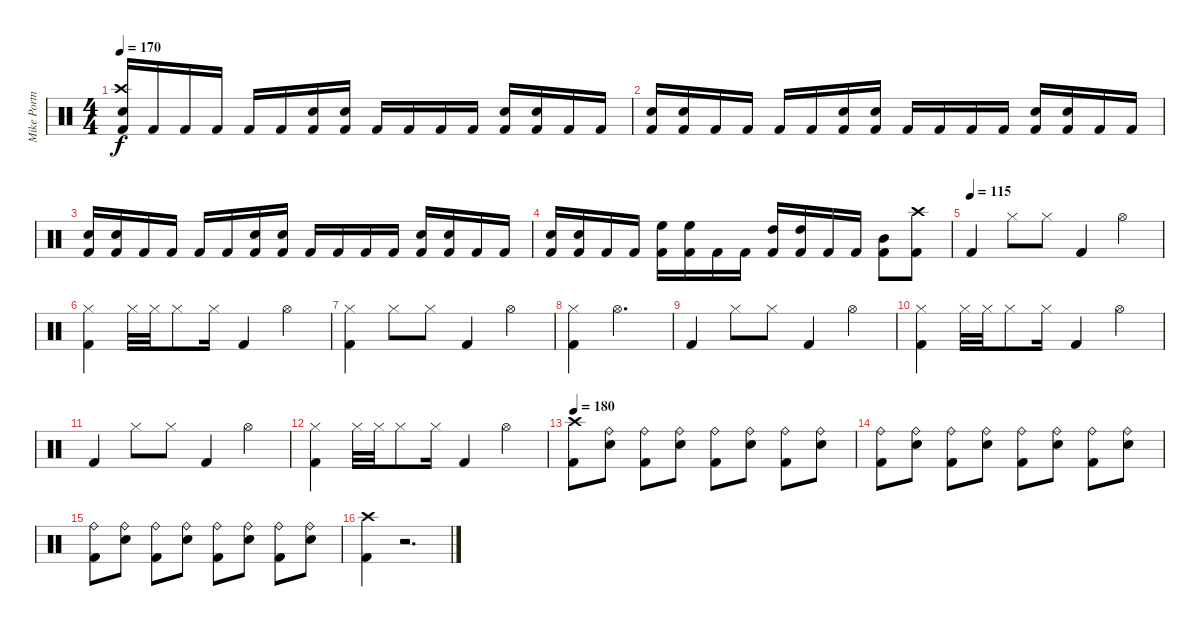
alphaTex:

\track ("Mike Portnoy Drums" "Mike Portn") {instrument percussion}
\staff {score}
\articulation defaults
\ts (4 4)
\tempo 170
\clef neutral
\ks c
("Kick (hit) 2" "Crash high (hit)" "Electric Snare (hit)").16{dy f} "Kick (hit) 2".16 "Kick (hit) 2".16 "Kick (hit) 2".16 "Kick (hit) 2".16 "Kick (hit) 2".16 ("Kick (hit) 2" "Electric Snare (hit)").16 ("Kick (hit) 2" "Electric Snare (hit)").16 "Kick (hit) 2".16 "Kick (hit) 2".16 "Kick (hit) 2".16 "Kick (hit) 2".16 ("Kick (hit) 2" "Electric Snare (hit)").16 ("Kick (hit) 2" "Electric Snare (hit)").16 "Kick (hit) 2".16 "Kick (hit) 2".16 |
("Kick (hit) 2" "Electric Snare (hit)").16 ("Kick (hit) 2" "Electric Snare (hit)").16 "Kick (hit) 2".16 "Kick (hit) 2".16 "Kick (hit) 2".16 "Kick (hit) 2".16 ("Kick (hit) 2" "Electric Snare (hit)").16 ("Kick (hit) 2" "Electric Snare (hit)").16 "Kick (hit) 2".16 "Kick (hit) 2".16 "Kick (hit) 2".16 "Kick (hit) 2".16 ("Kick (hit) 2" "Electric Snare (hit)").16 ("Kick (hit) 2" "Electric Snare (hit)").16 "Kick (hit) 2".16 "Kick (hit) 2".16 |
("Kick (hit) 2" "Electric Snare (hit)").16 ("Kick (hit) 2" "Electric Snare (hit)").16 "Kick (hit) 2".16 "Kick (hit) 2".16 "Kick (hit) 2".16 "Kick (hit) 2".16 ("Kick (hit) 2" "Electric Snare (hit)").16 ("Kick (hit) 2" "Electric Snare (hit)").16 "Kick (hit) 2".16 "Kick (hit) 2".16 "Kick (hit) 2".16 "Kick (hit) 2".16 ("Kick (hit) 2" "Electric Snare (hit)").16 ("Kick (hit) 2" "Electric Snare (hit)").16 "Kick (hit) 2".16 "Kick (hit) 2".16 |
("Kick (hit) 2" "Electric Snare (hit)").16 ("Kick (hit) 2" "Electric Snare (hit)").16 "Kick (hit) 2".16 "Kick (hit) 2".16 ("Kick (hit) 2" "High Floor Tom (hit)").16 ("Kick (hit) 2" "High Floor Tom (hit)").16 "Kick (hit) 2".16 "Kick (hit) 2".16 ("Kick (hit) 2" "High Tom (hit)").16 ("Kick (hit) 2" "High Tom (hit)").16 "Kick (hit) 2".16 "Kick (hit) 2".16 ("Kick (hit) 2" "Mid Tom (hit)").8 ("Kick (hit) 2" "Crash high (hit)").8 |
\tempo (115)
"Kick (hit) 2".4 "Hi-Hat (closed)"{pm}.8 "Hi-Hat (closed)"{pm}.8 "Kick (hit) 2".4 "Hi-Hat (open)".4 |
("Hi-Hat (closed)" "Kick (hit) 2").4 "Hi-Hat (closed)".32 "Hi-Hat (closed)".32 "Hi-Hat (closed)".8 "Hi-Hat (closed)".16 "Kick (hit) 2".4 "Hi-Hat (open)".4 |
("Hi-Hat (closed)" "Kick (hit) 2").4 "Hi-Hat (closed)"{pm}.8 "Hi-Hat (closed)"{pm}.8 "Kick (hit) 2".4 "Hi-Hat (open)".4 |
("Hi-Hat (closed)" "Kick (hit) 2").4 "Hi-Hat (open)".2{d} |
"Kick (hit) 2".4 "Hi-Hat (closed)"{pm}.8 "Hi-Hat (closed)"{pm}.8 "Kick (hit) 2".4 "Hi-Hat (open)".4 |
("Hi-Hat (closed)" "Kick (hit) 2").4 "Hi-Hat (closed)".32 "Hi-Hat (closed)".32 "Hi-Hat (closed)".8 "Hi-Hat (closed)".16 "Kick (hit) 2".4 "Hi-Hat (open)".4 |
"Kick (hit) 2".4 "Hi-Hat (closed)"{pm}.8 "Hi-Hat (closed)"{pm}.8 "Kick (hit) 2".4 "Hi-Hat (open)".4 |
("Hi-Hat (closed)" "Kick (hit) 2").4 "Hi-Hat (closed)".32 "Hi-Hat (closed)".32 "Hi-Hat (closed)".8 "Hi-Hat (closed)".16 "Kick (hit) 2".4 "Hi-Hat (open)".4 |
\tempo 180
("Kick (hit) 2" "Crash high (hit)").8 ("Electric Snare (hit)" "Ride (bell)").8 ("Kick (hit) 2" "Ride (bell)").8 ("Electric Snare (hit)" "Ride (bell)").8 ("Kick (hit) 2" "Ride (bell)").8 ("Electric Snare (hit)" "Ride (bell)").8 ("Kick (hit) 2" "Ride (bell)").8 ("Electric Snare (hit)" "Ride (bell)").8 |
("Kick (hit) 2" "Ride (bell)").8 ("Electric Snare (hit)" "Ride (bell)").8 ("Kick (hit) 2" "Ride (bell)").8 ("Electric Snare (hit)" "Ride (bell)").8 ("Kick (hit) 2" "Ride (bell)").8 ("Electric Snare (hit)" "Ride (bell)").8 ("Kick (hit) 2" "Ride (bell)").8 ("Electric Snare (hit)" "Ride (bell)").8 |
("Kick (hit) 2" "Ride (bell)").8 ("Electric Snare (hit)" "Ride (bell)").8 ("Kick (hit) 2" "Ride (bell)").8 ("Electric Snare (hit)" "Ride (bell)").8 ("Kick (hit) 2" "Ride (bell)").8 ("Electric Snare (hit)" "Ride (bell)").8 ("Kick (hit) 2" "Ride (bell)").8 ("Electric Snare (hit)" "Ride (bell)").8 |
("Kick (hit) 2" "Crash high (hit)").4 r.2{d}
